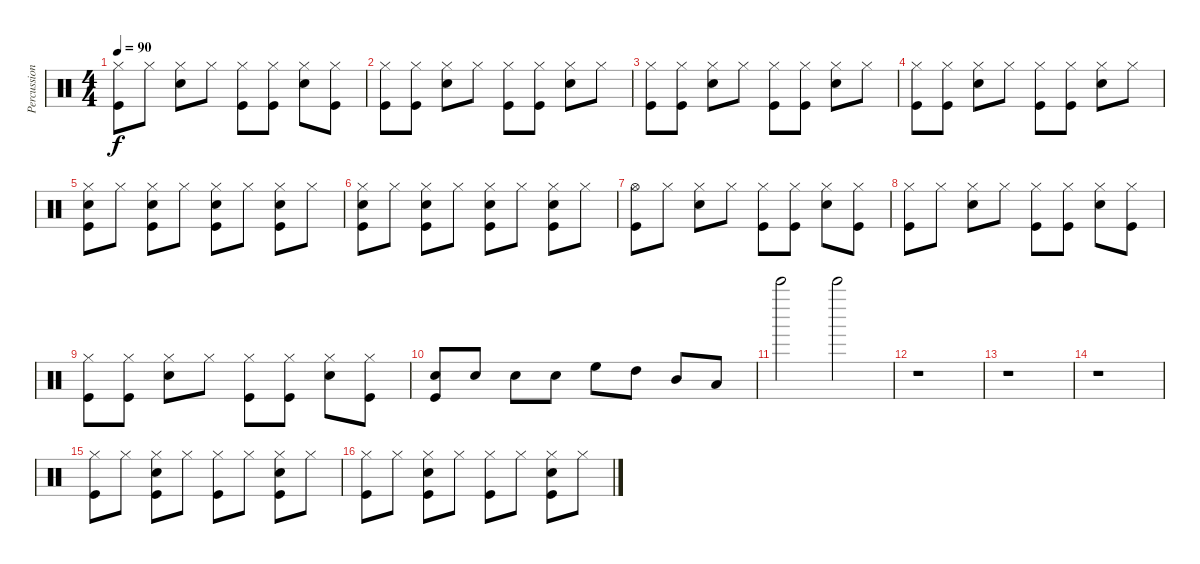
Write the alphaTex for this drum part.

\track ("Percussion" "Percussion") {instrument percussion}
\staff {score}
\articulation defaults
\ts (4 4)
\tempo 90
\clef neutral
\ks c
("Hi-Hat (closed)" "Kick (hit)").8{dy f} "Hi-Hat (closed)".8 ("Hi-Hat (closed)" "Snare (hit) 2").8 "Hi-Hat (closed)".8 ("Hi-Hat (closed)" "Kick (hit)").8 ("Hi-Hat (closed)" "Kick (hit)").8 ("Hi-Hat (closed)" "Snare (hit) 2").8 ("Hi-Hat (closed)" "Kick (hit)").8 |
("Hi-Hat (closed)" "Kick (hit)").8 ("Hi-Hat (closed)" "Kick (hit)").8 ("Hi-Hat (closed)" "Snare (hit) 2").8 "Hi-Hat (closed)".8 ("Hi-Hat (closed)" "Kick (hit)").8 ("Hi-Hat (closed)" "Kick (hit)").8 ("Hi-Hat (closed)" "Snare (hit) 2").8 "Hi-Hat (closed)".8 |
("Hi-Hat (closed)" "Kick (hit)").8 ("Hi-Hat (closed)" "Kick (hit)").8 ("Hi-Hat (closed)" "Snare (hit) 2").8 "Hi-Hat (closed)".8 ("Hi-Hat (closed)" "Kick (hit)").8 ("Hi-Hat (closed)" "Kick (hit)").8 ("Hi-Hat (closed)" "Snare (hit) 2").8 "Hi-Hat (closed)".8 |
("Hi-Hat (closed)" "Kick (hit)").8 ("Hi-Hat (closed)" "Kick (hit)").8 ("Hi-Hat (closed)" "Snare (hit) 2").8 "Hi-Hat (closed)".8 ("Hi-Hat (closed)" "Kick (hit)").8 ("Hi-Hat (closed)" "Kick (hit)").8 ("Hi-Hat (closed)" "Snare (hit) 2").8 "Hi-Hat (closed)".8 |
("Hi-Hat (closed)" "Snare (hit) 2" "Kick (hit)").8 "Hi-Hat (closed)".8 ("Hi-Hat (closed)" "Snare (hit) 2" "Kick (hit)").8 "Hi-Hat (closed)".8 ("Hi-Hat (closed)" "Snare (hit) 2" "Kick (hit)").8 "Hi-Hat (closed)".8 ("Hi-Hat (closed)" "Snare (hit) 2" "Kick (hit)").8 "Hi-Hat (closed)".8 |
("Hi-Hat (closed)" "Snare (hit) 2" "Kick (hit)").8 "Hi-Hat (closed)".8 ("Hi-Hat (closed)" "Snare (hit) 2" "Kick (hit)").8 "Hi-Hat (closed)".8 ("Hi-Hat (closed)" "Snare (hit) 2" "Kick (hit)").8 "Hi-Hat (closed)".8 ("Hi-Hat (closed)" "Snare (hit) 2" "Kick (hit)").8 "Hi-Hat (closed)".8 |
("Hi-Hat (open)" "Kick (hit)").8 "Hi-Hat (closed)".8 ("Hi-Hat (closed)" "Snare (hit) 2").8 "Hi-Hat (closed)".8 ("Hi-Hat (closed)" "Kick (hit)").8 ("Hi-Hat (closed)" "Kick (hit)").8 ("Hi-Hat (closed)" "Snare (hit) 2").8 ("Hi-Hat (closed)" "Kick (hit)").8 |
("Hi-Hat (closed)" "Kick (hit)").8 "Hi-Hat (closed)".8 ("Hi-Hat (closed)" "Snare (hit) 2").8 "Hi-Hat (closed)".8 ("Hi-Hat (closed)" "Kick (hit)").8 ("Hi-Hat (closed)" "Kick (hit)").8 ("Hi-Hat (closed)" "Snare (hit) 2").8 ("Hi-Hat (closed)" "Kick (hit)").8 |
("Hi-Hat (closed)" "Kick (hit)").8 ("Hi-Hat (closed)" "Kick (hit)").8 ("Hi-Hat (closed)" "Snare (hit) 2").8 "Hi-Hat (closed)".8 ("Hi-Hat (closed)" "Kick (hit)").8 ("Hi-Hat (closed)" "Kick (hit)").8 ("Hi-Hat (closed)" "Snare (hit) 2").8 ("Hi-Hat (closed)" "Kick (hit)").8 |
("Snare (hit) 2" "Kick (hit)").8 "Snare (hit) 2".8 "Snare (hit) 2".8 "Snare (hit) 2".8 "High Floor Tom (hit)".8 "High Tom (hit)".8 "Mid Tom (hit)".8 "Low Tom (hit)".8 |
"Bell Tree (hit)".2 "Bell Tree (hit)".2 |
r.1 |
r.1 |
r.1 |
("Hi-Hat (closed)" "Kick (hit)").8 "Hi-Hat (closed)".8 ("Hi-Hat (closed)" "Snare (hit) 2" "Kick (hit)").8 "Hi-Hat (closed)".8 ("Hi-Hat (closed)" "Kick (hit)").8 "Hi-Hat (closed)".8 ("Hi-Hat (closed)" "Snare (hit) 2" "Kick (hit)").8 "Hi-Hat (closed)".8 |
("Hi-Hat (closed)" "Kick (hit)").8 "Hi-Hat (closed)".8 ("Hi-Hat (closed)" "Snare (hit) 2" "Kick (hit)").8 "Hi-Hat (closed)".8 ("Hi-Hat (closed)" "Kick (hit)").8 "Hi-Hat (closed)".8 ("Hi-Hat (closed)" "Snare (hit) 2" "Kick (hit)").8 "Hi-Hat (closed)".8
